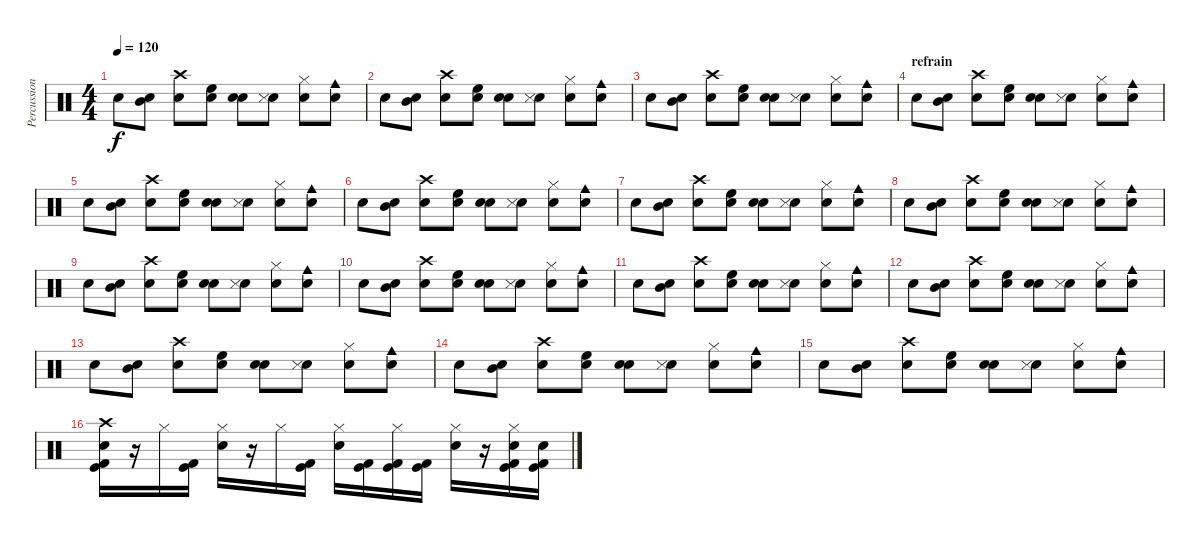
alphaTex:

\track ("Percussions" "Percussion") {instrument percussion}
\staff {score}
\articulation defaults
\ts (4 4)
\tempo 120
\clef neutral
\ks c "Snare (hit) 2".8{dy f}
("Snare (hit) 2" "Mid Tom (hit)").8 ("Snare (hit) 2" "Crash high (hit)").8 ("Snare (hit) 2" "High Floor Tom (hit)").8 ("Snare (hit) 2" "Snare (hit) 2").8 ("Snare (hit) 2" "Snare (side stick) 3").8 ("Snare (hit) 2" "Hi-Hat (closed)").8 ("Snare (hit) 2" "Cowbell medium (hit)").8 |
"Snare (hit) 2".8 ("Snare (hit) 2" "Mid Tom (hit)").8 ("Snare (hit) 2" "Crash high (hit)").8 ("Snare (hit) 2" "High Floor Tom (hit)").8 ("Snare (hit) 2" "Snare (hit) 2").8 ("Snare (hit) 2" "Snare (side stick) 3").8 ("Snare (hit) 2" "Hi-Hat (closed)").8 ("Snare (hit) 2" "Cowbell medium (hit)").8 |
"Snare (hit) 2".8 ("Snare (hit) 2" "Mid Tom (hit)").8 ("Snare (hit) 2" "Crash high (hit)").8 ("Snare (hit) 2" "High Floor Tom (hit)").8 ("Snare (hit) 2" "Snare (hit) 2").8 ("Snare (hit) 2" "Snare (side stick) 3").8 ("Snare (hit) 2" "Hi-Hat (closed)").8 ("Snare (hit) 2" "Cowbell medium (hit)").8 |
\section ("" "refrain")
"Snare (hit) 2".8 ("Snare (hit) 2" "Mid Tom (hit)").8 ("Snare (hit) 2" "Crash high (hit)").8 ("Snare (hit) 2" "High Floor Tom (hit)").8 ("Snare (hit) 2" "Snare (hit) 2").8 ("Snare (hit) 2" "Snare (side stick) 3").8 ("Snare (hit) 2" "Hi-Hat (closed)").8 ("Snare (hit) 2" "Cowbell medium (hit)").8 |
"Snare (hit) 2".8 ("Snare (hit) 2" "Mid Tom (hit)").8 ("Snare (hit) 2" "Crash high (hit)").8 ("Snare (hit) 2" "High Floor Tom (hit)").8 ("Snare (hit) 2" "Snare (hit) 2").8 ("Snare (hit) 2" "Snare (side stick) 3").8 ("Snare (hit) 2" "Hi-Hat (closed)").8 ("Snare (hit) 2" "Cowbell medium (hit)").8 |
"Snare (hit) 2".8 ("Snare (hit) 2" "Mid Tom (hit)").8 ("Snare (hit) 2" "Crash high (hit)").8 ("Snare (hit) 2" "High Floor Tom (hit)").8 ("Snare (hit) 2" "Snare (hit) 2").8 ("Snare (hit) 2" "Snare (side stick) 3").8 ("Snare (hit) 2" "Hi-Hat (closed)").8 ("Snare (hit) 2" "Cowbell medium (hit)").8 |
"Snare (hit) 2".8 ("Snare (hit) 2" "Mid Tom (hit)").8 ("Snare (hit) 2" "Crash high (hit)").8 ("Snare (hit) 2" "High Floor Tom (hit)").8 ("Snare (hit) 2" "Snare (hit) 2").8 ("Snare (hit) 2" "Snare (side stick) 3").8 ("Snare (hit) 2" "Hi-Hat (closed)").8 ("Snare (hit) 2" "Cowbell medium (hit)").8 |
"Snare (hit) 2".8 ("Snare (hit) 2" "Mid Tom (hit)").8 ("Snare (hit) 2" "Crash high (hit)").8 ("Snare (hit) 2" "High Floor Tom (hit)").8 ("Snare (hit) 2" "Snare (hit) 2").8 ("Snare (hit) 2" "Snare (side stick) 3").8 ("Snare (hit) 2" "Hi-Hat (closed)").8 ("Snare (hit) 2" "Cowbell medium (hit)").8 |
"Snare (hit) 2".8 ("Snare (hit) 2" "Mid Tom (hit)").8 ("Snare (hit) 2" "Crash high (hit)").8 ("Snare (hit) 2" "High Floor Tom (hit)").8 ("Snare (hit) 2" "Snare (hit) 2").8 ("Snare (hit) 2" "Snare (side stick) 3").8 ("Snare (hit) 2" "Hi-Hat (closed)").8 ("Snare (hit) 2" "Cowbell medium (hit)").8 |
"Snare (hit) 2".8 ("Snare (hit) 2" "Mid Tom (hit)").8 ("Snare (hit) 2" "Crash high (hit)").8 ("Snare (hit) 2" "High Floor Tom (hit)").8 ("Snare (hit) 2" "Snare (hit) 2").8 ("Snare (hit) 2" "Snare (side stick) 3").8 ("Snare (hit) 2" "Hi-Hat (closed)").8 ("Snare (hit) 2" "Cowbell medium (hit)").8 |
"Snare (hit) 2".8 ("Snare (hit) 2" "Mid Tom (hit)").8 ("Snare (hit) 2" "Crash high (hit)").8 ("Snare (hit) 2" "High Floor Tom (hit)").8 ("Snare (hit) 2" "Snare (hit) 2").8 ("Snare (hit) 2" "Snare (side stick) 3").8 ("Snare (hit) 2" "Hi-Hat (closed)").8 ("Snare (hit) 2" "Cowbell medium (hit)").8 |
"Snare (hit) 2".8 ("Snare (hit) 2" "Mid Tom (hit)").8 ("Snare (hit) 2" "Crash high (hit)").8 ("Snare (hit) 2" "High Floor Tom (hit)").8 ("Snare (hit) 2" "Snare (hit) 2").8 ("Snare (hit) 2" "Snare (side stick) 3").8 ("Snare (hit) 2" "Hi-Hat (closed)").8 ("Snare (hit) 2" "Cowbell medium (hit)").8 |
"Snare (hit) 2".8 ("Snare (hit) 2" "Mid Tom (hit)").8 ("Snare (hit) 2" "Crash high (hit)").8 ("Snare (hit) 2" "High Floor Tom (hit)").8 ("Snare (hit) 2" "Snare (hit) 2").8 ("Snare (hit) 2" "Snare (side stick) 3").8 ("Snare (hit) 2" "Hi-Hat (closed)").8 ("Snare (hit) 2" "Cowbell medium (hit)").8 |
"Snare (hit) 2".8 ("Snare (hit) 2" "Mid Tom (hit)").8 ("Snare (hit) 2" "Crash high (hit)").8 ("Snare (hit) 2" "High Floor Tom (hit)").8 ("Snare (hit) 2" "Snare (hit) 2").8 ("Snare (hit) 2" "Snare (side stick) 3").8 ("Snare (hit) 2" "Hi-Hat (closed)").8 ("Snare (hit) 2" "Cowbell medium (hit)").8 |
"Snare (hit) 2".8 ("Snare (hit) 2" "Mid Tom (hit)").8 ("Snare (hit) 2" "Crash high (hit)").8 ("Snare (hit) 2" "High Floor Tom (hit)").8 ("Snare (hit) 2" "Snare (hit) 2").8 ("Snare (hit) 2" "Snare (side stick) 3").8 ("Snare (hit) 2" "Hi-Hat (closed)").8 ("Snare (hit) 2" "Cowbell medium (hit)").8 |
("Crash high (hit)" "Electric Snare (hit)" "Kick (hit) 2" "Kick (hit)").16 r.16 "Hi-Hat (closed)".16 ("Kick (hit)" "Kick (hit) 2").16 ("Hi-Hat (closed)" "Electric Snare (hit)").16 r.16 "Hi-Hat (closed)".16 ("Kick (hit) 2" "Kick (hit)").16 ("Hi-Hat (closed)" "Electric Snare (hit)").16 ("Kick (hit) 2" "Kick (hit)").16 ("Hi-Hat (closed)" "Kick (hit) 2" "Kick (hit)").16 ("Kick (hit) 2" "Kick (hit)").16 ("Hi-Hat (closed)" "Electric Snare (hit)").16 r.16 ("Hi-Hat (closed)" "Electric Snare (hit)" "Kick (hit) 2" "Kick (hit)").16 ("Electric Snare (hit)" "Kick (hit) 2" "Kick (hit)").16
